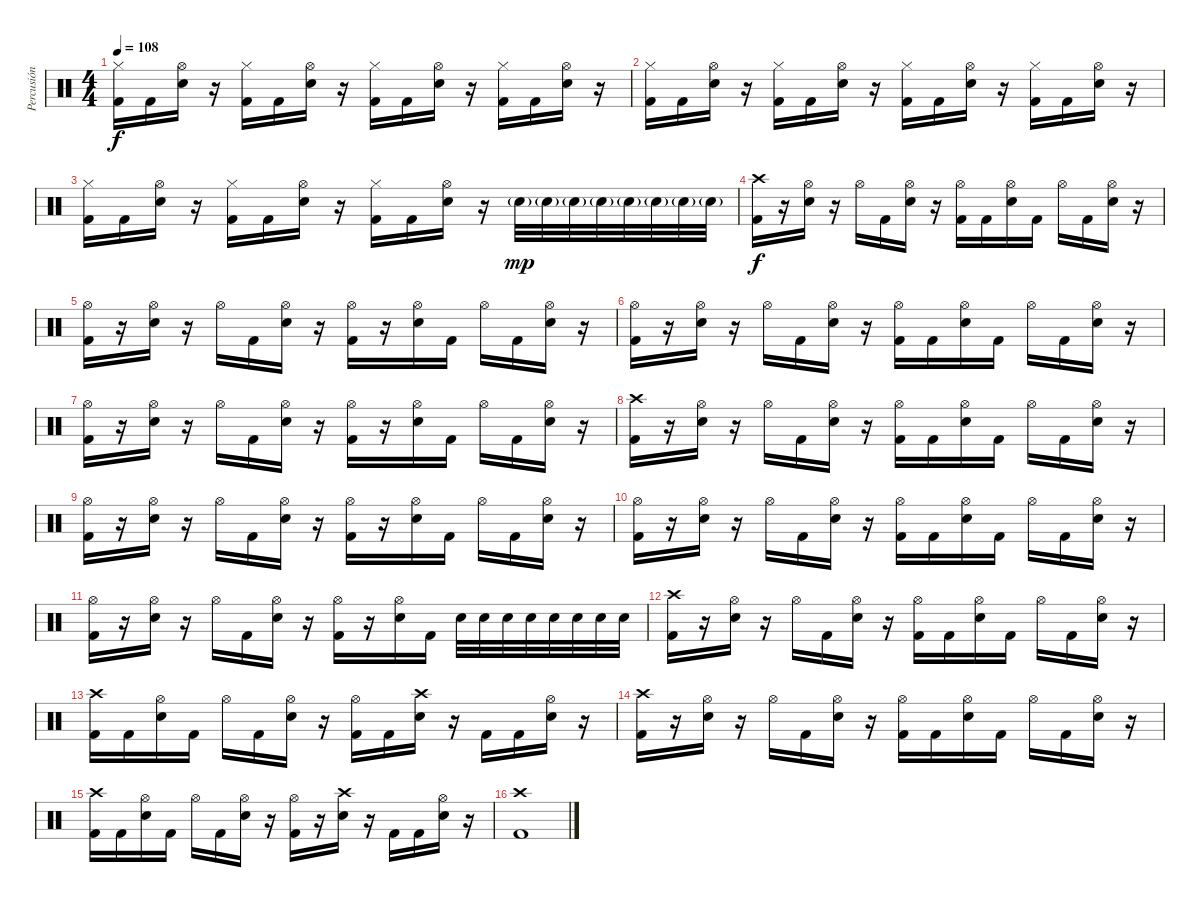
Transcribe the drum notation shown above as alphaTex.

\track ("Percusión" "Percusión") {instrument percussion}
\staff {score}
\articulation defaults
\ts (4 4)
\tempo 108
\clef neutral
\ks c
("Hi-Hat (closed)" "Kick (hit) 2").16{dy f} "Kick (hit) 2".16 ("Hi-Hat (open)" "Electric Snare (hit)").16 r.16 ("Hi-Hat (closed)" "Kick (hit) 2").16 "Kick (hit) 2".16 ("Hi-Hat (open)" "Electric Snare (hit)").16 r.16 ("Hi-Hat (closed)" "Kick (hit) 2").16 "Kick (hit) 2".16 ("Hi-Hat (open)" "Electric Snare (hit)").16 r.16 ("Hi-Hat (closed)" "Kick (hit) 2").16 "Kick (hit) 2".16 ("Hi-Hat (open)" "Electric Snare (hit)").16 r.16 |
("Hi-Hat (closed)" "Kick (hit) 2").16 "Kick (hit) 2".16 ("Hi-Hat (open)" "Electric Snare (hit)").16 r.16 ("Hi-Hat (closed)" "Kick (hit) 2").16 "Kick (hit) 2".16 ("Hi-Hat (open)" "Electric Snare (hit)").16 r.16 ("Hi-Hat (closed)" "Kick (hit) 2").16 "Kick (hit) 2".16 ("Hi-Hat (open)" "Electric Snare (hit)").16 r.16 ("Hi-Hat (closed)" "Kick (hit) 2").16 "Kick (hit) 2".16 ("Hi-Hat (open)" "Electric Snare (hit)").16 r.16 |
("Hi-Hat (closed)" "Kick (hit) 2").16 "Kick (hit) 2".16 ("Hi-Hat (open)" "Electric Snare (hit)").16 r.16 ("Hi-Hat (closed)" "Kick (hit) 2").16 "Kick (hit) 2".16 ("Hi-Hat (open)" "Electric Snare (hit)").16 r.16 ("Hi-Hat (closed)" "Kick (hit) 2").16 "Kick (hit) 2".16 ("Hi-Hat (open)" "Electric Snare (hit)").16 r.16 "Electric Snare (hit)"{g}.32{dy mp} "Electric Snare (hit)"{g}.32 "Electric Snare (hit)"{g}.32 "Electric Snare (hit)"{g}.32 "Electric Snare (hit)"{g}.32 "Electric Snare (hit)"{g}.32 "Electric Snare (hit)"{g}.32 "Electric Snare (hit)"{g}.32 |
("Crash high (hit)" "Kick (hit) 2").16{dy f} r.16 ("Hi-Hat (open)" "Electric Snare (hit)").16 r.16 "Hi-Hat (open)".16 "Kick (hit) 2".16 ("Hi-Hat (open)" "Electric Snare (hit)").16 r.16 ("Hi-Hat (open)" "Kick (hit) 2").16 "Kick (hit) 2".16 ("Hi-Hat (open)" "Electric Snare (hit)").16 "Kick (hit) 2".16 "Hi-Hat (open)".16 "Kick (hit) 2".16 ("Hi-Hat (open)" "Electric Snare (hit)").16 r.16 |
("Hi-Hat (open)" "Kick (hit) 2").16 r.16 ("Hi-Hat (open)" "Electric Snare (hit)").16 r.16 "Hi-Hat (open)".16 "Kick (hit) 2".16 ("Hi-Hat (open)" "Electric Snare (hit)").16 r.16 ("Hi-Hat (open)" "Kick (hit) 2").16 r.16 ("Hi-Hat (open)" "Electric Snare (hit)").16 "Kick (hit) 2".16 "Hi-Hat (open)".16 "Kick (hit) 2".16 ("Hi-Hat (open)" "Electric Snare (hit)").16 r.16 |
("Hi-Hat (open)" "Kick (hit) 2").16 r.16 ("Hi-Hat (open)" "Electric Snare (hit)").16 r.16 "Hi-Hat (open)".16 "Kick (hit) 2".16 ("Hi-Hat (open)" "Electric Snare (hit)").16 r.16 ("Hi-Hat (open)" "Kick (hit) 2").16 "Kick (hit) 2".16 ("Hi-Hat (open)" "Electric Snare (hit)").16 "Kick (hit) 2".16 "Hi-Hat (open)".16 "Kick (hit) 2".16 ("Hi-Hat (open)" "Electric Snare (hit)").16 r.16 |
("Hi-Hat (open)" "Kick (hit) 2").16 r.16 ("Hi-Hat (open)" "Electric Snare (hit)").16 r.16 "Hi-Hat (open)".16 "Kick (hit) 2".16 ("Hi-Hat (open)" "Electric Snare (hit)").16 r.16 ("Hi-Hat (open)" "Kick (hit) 2").16 r.16 ("Hi-Hat (open)" "Electric Snare (hit)").16 "Kick (hit) 2".16 "Hi-Hat (open)".16 "Kick (hit) 2".16 ("Hi-Hat (open)" "Electric Snare (hit)").16 r.16 |
("Crash high (hit)" "Kick (hit) 2").16 r.16 ("Hi-Hat (open)" "Electric Snare (hit)").16 r.16 "Hi-Hat (open)".16 "Kick (hit) 2".16 ("Hi-Hat (open)" "Electric Snare (hit)").16 r.16 ("Hi-Hat (open)" "Kick (hit) 2").16 "Kick (hit) 2".16 ("Hi-Hat (open)" "Electric Snare (hit)").16 "Kick (hit) 2".16 "Hi-Hat (open)".16 "Kick (hit) 2".16 ("Hi-Hat (open)" "Electric Snare (hit)").16 r.16 |
("Hi-Hat (open)" "Kick (hit) 2").16 r.16 ("Hi-Hat (open)" "Electric Snare (hit)").16 r.16 "Hi-Hat (open)".16 "Kick (hit) 2".16 ("Hi-Hat (open)" "Electric Snare (hit)").16 r.16 ("Hi-Hat (open)" "Kick (hit) 2").16 r.16 ("Hi-Hat (open)" "Electric Snare (hit)").16 "Kick (hit) 2".16 "Hi-Hat (open)".16 "Kick (hit) 2".16 ("Hi-Hat (open)" "Electric Snare (hit)").16 r.16 |
("Hi-Hat (open)" "Kick (hit) 2").16 r.16 ("Hi-Hat (open)" "Electric Snare (hit)").16 r.16 "Hi-Hat (open)".16 "Kick (hit) 2".16 ("Hi-Hat (open)" "Electric Snare (hit)").16 r.16 ("Hi-Hat (open)" "Kick (hit) 2").16 "Kick (hit) 2".16 ("Hi-Hat (open)" "Electric Snare (hit)").16 "Kick (hit) 2".16 "Hi-Hat (open)".16 "Kick (hit) 2".16 ("Hi-Hat (open)" "Electric Snare (hit)").16 r.16 |
("Hi-Hat (open)" "Kick (hit) 2").16 r.16 ("Hi-Hat (open)" "Electric Snare (hit)").16 r.16 "Hi-Hat (open)".16 "Kick (hit) 2".16 ("Hi-Hat (open)" "Electric Snare (hit)").16 r.16 ("Hi-Hat (open)" "Kick (hit) 2").16 r.16 ("Hi-Hat (open)" "Electric Snare (hit)").16 "Kick (hit) 2".16 "Electric Snare (hit)".32 "Electric Snare (hit)".32 "Electric Snare (hit)".32 "Electric Snare (hit)".32 "Electric Snare (hit)".32 "Electric Snare (hit)".32 "Electric Snare (hit)".32 "Electric Snare (hit)".32 |
("Crash high (hit)" "Kick (hit) 2").16 r.16 ("Hi-Hat (open)" "Electric Snare (hit)").16 r.16 "Hi-Hat (open)".16 "Kick (hit) 2".16 ("Hi-Hat (open)" "Electric Snare (hit)").16 r.16 ("Hi-Hat (open)" "Kick (hit) 2").16 "Kick (hit) 2".16 ("Hi-Hat (open)" "Electric Snare (hit)").16 "Kick (hit) 2".16 "Hi-Hat (open)".16 "Kick (hit) 2".16 ("Hi-Hat (open)" "Electric Snare (hit)").16 r.16 |
("Crash high (hit)" "Kick (hit) 2").16 "Kick (hit) 2".16 ("Hi-Hat (open)" "Electric Snare (hit)").16 "Kick (hit) 2".16 "Hi-Hat (open)".16 "Kick (hit) 2".16 ("Hi-Hat (open)" "Electric Snare (hit)").16 r.16 ("Hi-Hat (open)" "Kick (hit) 2").16 "Kick (hit) 2".16 ("Crash high (hit)" "Electric Snare (hit)").16 r.16 "Kick (hit) 2".16 "Kick (hit) 2".16 ("Hi-Hat (open)" "Electric Snare (hit)").16 r.16 |
("Crash high (hit)" "Kick (hit) 2").16 r.16 ("Hi-Hat (open)" "Electric Snare (hit)").16 r.16 "Hi-Hat (open)".16 "Kick (hit) 2".16 ("Hi-Hat (open)" "Electric Snare (hit)").16 r.16 ("Hi-Hat (open)" "Kick (hit) 2").16 "Kick (hit) 2".16 ("Hi-Hat (open)" "Electric Snare (hit)").16 "Kick (hit) 2".16 "Hi-Hat (open)".16 "Kick (hit) 2".16 ("Hi-Hat (open)" "Electric Snare (hit)").16 r.16 |
("Crash high (hit)" "Kick (hit) 2").16 "Kick (hit) 2".16 ("Hi-Hat (open)" "Electric Snare (hit)").16 "Kick (hit) 2".16 "Hi-Hat (open)".16 "Kick (hit) 2".16 ("Hi-Hat (open)" "Electric Snare (hit)").16 r.16 ("Hi-Hat (open)" "Kick (hit) 2").16 r.16 ("Crash high (hit)" "Electric Snare (hit)").16 r.16 "Kick (hit) 2".16 "Kick (hit) 2".16 ("Hi-Hat (open)" "Electric Snare (hit)").16 r.16 |
("Crash high (hit)" "Kick (hit) 2").1
